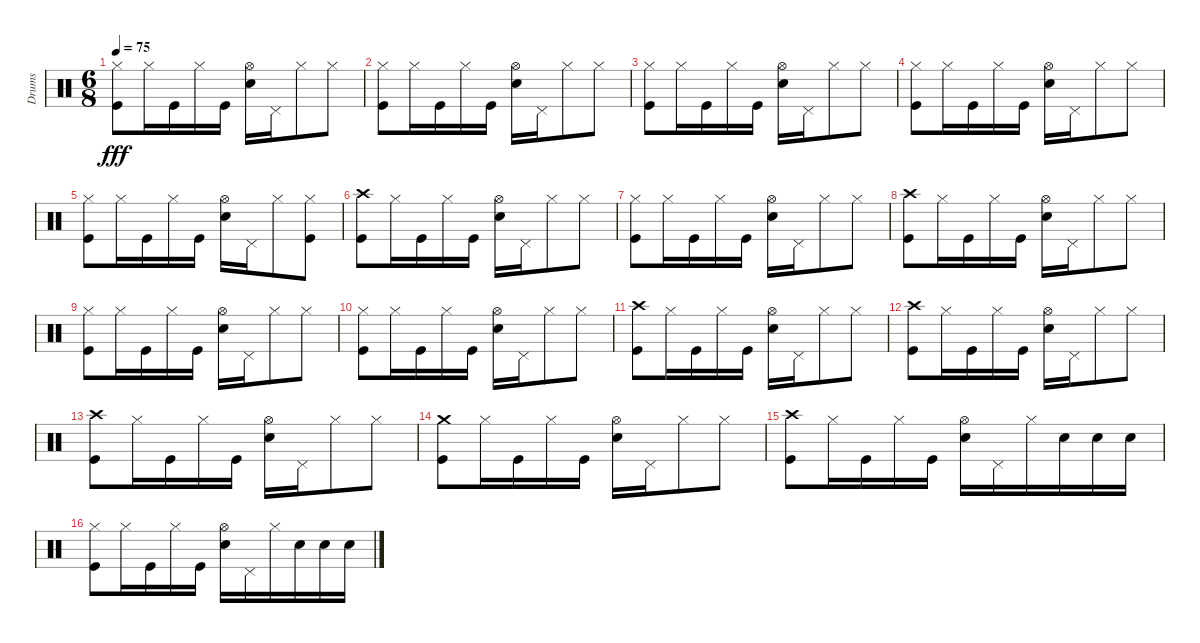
\track ("Drums" "Drums") {instrument percussion}
\staff {score}
\articulation defaults
\ts (6 8)
\tempo 75
\clef neutral
\ks c
("Hi-Hat (closed)" "Kick (hit)").8{dy fff} "Hi-Hat (closed)".16 "Kick (hit)".16 "Hi-Hat (closed)".16 "Kick (hit)".16 ("Hi-Hat (open)" "Snare (hit) 2").16 "Pedal Hi-Hat (hit)".16 "Hi-Hat (closed)".8 "Hi-Hat (closed)".8 |
("Hi-Hat (closed)" "Kick (hit)").8 "Hi-Hat (closed)".16 "Kick (hit)".16 "Hi-Hat (closed)".16 "Kick (hit)".16 ("Hi-Hat (open)" "Snare (hit) 2").16 "Pedal Hi-Hat (hit)".16 "Hi-Hat (closed)".8 "Hi-Hat (closed)".8 |
("Hi-Hat (closed)" "Kick (hit)").8 "Hi-Hat (closed)".16 "Kick (hit)".16 "Hi-Hat (closed)".16 "Kick (hit)".16 ("Hi-Hat (open)" "Snare (hit) 2").16 "Pedal Hi-Hat (hit)".16 "Hi-Hat (closed)".8 "Hi-Hat (closed)".8 |
("Hi-Hat (closed)" "Kick (hit)").8 "Hi-Hat (closed)".16 "Kick (hit)".16 "Hi-Hat (closed)".16 "Kick (hit)".16 ("Hi-Hat (open)" "Snare (hit) 2").16 "Pedal Hi-Hat (hit)".16 "Hi-Hat (closed)".8 "Hi-Hat (closed)".8 |
("Hi-Hat (closed)" "Kick (hit)").8 "Hi-Hat (closed)".16 "Kick (hit)".16 "Hi-Hat (closed)".16 "Kick (hit)".16 ("Hi-Hat (open)" "Snare (hit) 2").16 "Pedal Hi-Hat (hit)".16 "Hi-Hat (closed)".8 ("Hi-Hat (closed)" "Kick (hit)").8 |
("Crash high (hit)" "Kick (hit)").8 "Hi-Hat (closed)".16 "Kick (hit)".16 "Hi-Hat (closed)".16 "Kick (hit)".16 ("Hi-Hat (open)" "Snare (hit) 2").16 "Pedal Hi-Hat (hit)".16 "Hi-Hat (closed)".8 "Hi-Hat (closed)".8 |
("Hi-Hat (closed)" "Kick (hit)").8 "Hi-Hat (closed)".16 "Kick (hit)".16 "Hi-Hat (closed)".16 "Kick (hit)".16 ("Hi-Hat (open)" "Snare (hit) 2").16 "Pedal Hi-Hat (hit)".16 "Hi-Hat (closed)".8 "Hi-Hat (closed)".8 |
("Crash high (hit)" "Kick (hit)").8 "Hi-Hat (closed)".16 "Kick (hit)".16 "Hi-Hat (closed)".16 "Kick (hit)".16 ("Hi-Hat (open)" "Snare (hit) 2").16 "Pedal Hi-Hat (hit)".16 "Hi-Hat (closed)".8 "Hi-Hat (closed)".8 |
("Hi-Hat (closed)" "Kick (hit)").8 "Hi-Hat (closed)".16 "Kick (hit)".16 "Hi-Hat (closed)".16 "Kick (hit)".16 ("Hi-Hat (open)" "Snare (hit) 2").16 "Pedal Hi-Hat (hit)".16 "Hi-Hat (closed)".8 "Hi-Hat (closed)".8 |
("Hi-Hat (closed)" "Kick (hit)").8 "Hi-Hat (closed)".16 "Kick (hit)".16 "Hi-Hat (closed)".16 "Kick (hit)".16 ("Hi-Hat (open)" "Snare (hit) 2").16 "Pedal Hi-Hat (hit)".16 "Hi-Hat (closed)".8 "Hi-Hat (closed)".8 |
("Crash high (hit)" "Kick (hit)").8 "Hi-Hat (closed)".16 "Kick (hit)".16 "Hi-Hat (closed)".16 "Kick (hit)".16 ("Hi-Hat (open)" "Snare (hit) 2").16 "Pedal Hi-Hat (hit)".16 "Hi-Hat (closed)".8 "Hi-Hat (closed)".8 |
("Crash high (hit)" "Kick (hit)").8 "Hi-Hat (closed)".16 "Kick (hit)".16 "Hi-Hat (closed)".16 "Kick (hit)".16 ("Hi-Hat (open)" "Snare (hit) 2").16 "Pedal Hi-Hat (hit)".16 "Hi-Hat (closed)".8 "Hi-Hat (closed)".8 |
("Crash high (hit)" "Kick (hit)").8 "Hi-Hat (closed)".16 "Kick (hit)".16 "Hi-Hat (closed)".16 "Kick (hit)".16 ("Hi-Hat (open)" "Snare (hit) 2").16 "Pedal Hi-Hat (hit)".16 "Hi-Hat (closed)".8 "Hi-Hat (closed)".8 |
("Crash medium (hit)" "Kick (hit)").8 "Hi-Hat (closed)".16 "Kick (hit)".16 "Hi-Hat (closed)".16 "Kick (hit)".16 ("Hi-Hat (open)" "Snare (hit) 2").16 "Pedal Hi-Hat (hit)".16 "Hi-Hat (closed)".8 "Hi-Hat (closed)".8 |
("Crash high (hit)" "Kick (hit)").8 "Hi-Hat (closed)".16 "Kick (hit)".16 "Hi-Hat (closed)".16 "Kick (hit)".16 ("Hi-Hat (open)" "Snare (hit) 2").16 "Pedal Hi-Hat (hit)".16 "Hi-Hat (closed)".16 "Snare (hit) 2".16 "Snare (hit) 2".16 "Snare (hit) 2".16 |
("Hi-Hat (closed)" "Kick (hit)").8 "Hi-Hat (closed)".16 "Kick (hit)".16 "Hi-Hat (closed)".16 "Kick (hit)".16 ("Hi-Hat (open)" "Snare (hit) 2").16 "Pedal Hi-Hat (hit)".16 "Hi-Hat (closed)".16 "Snare (hit) 2".16 "Snare (hit) 2".16 "Snare (hit) 2".16
